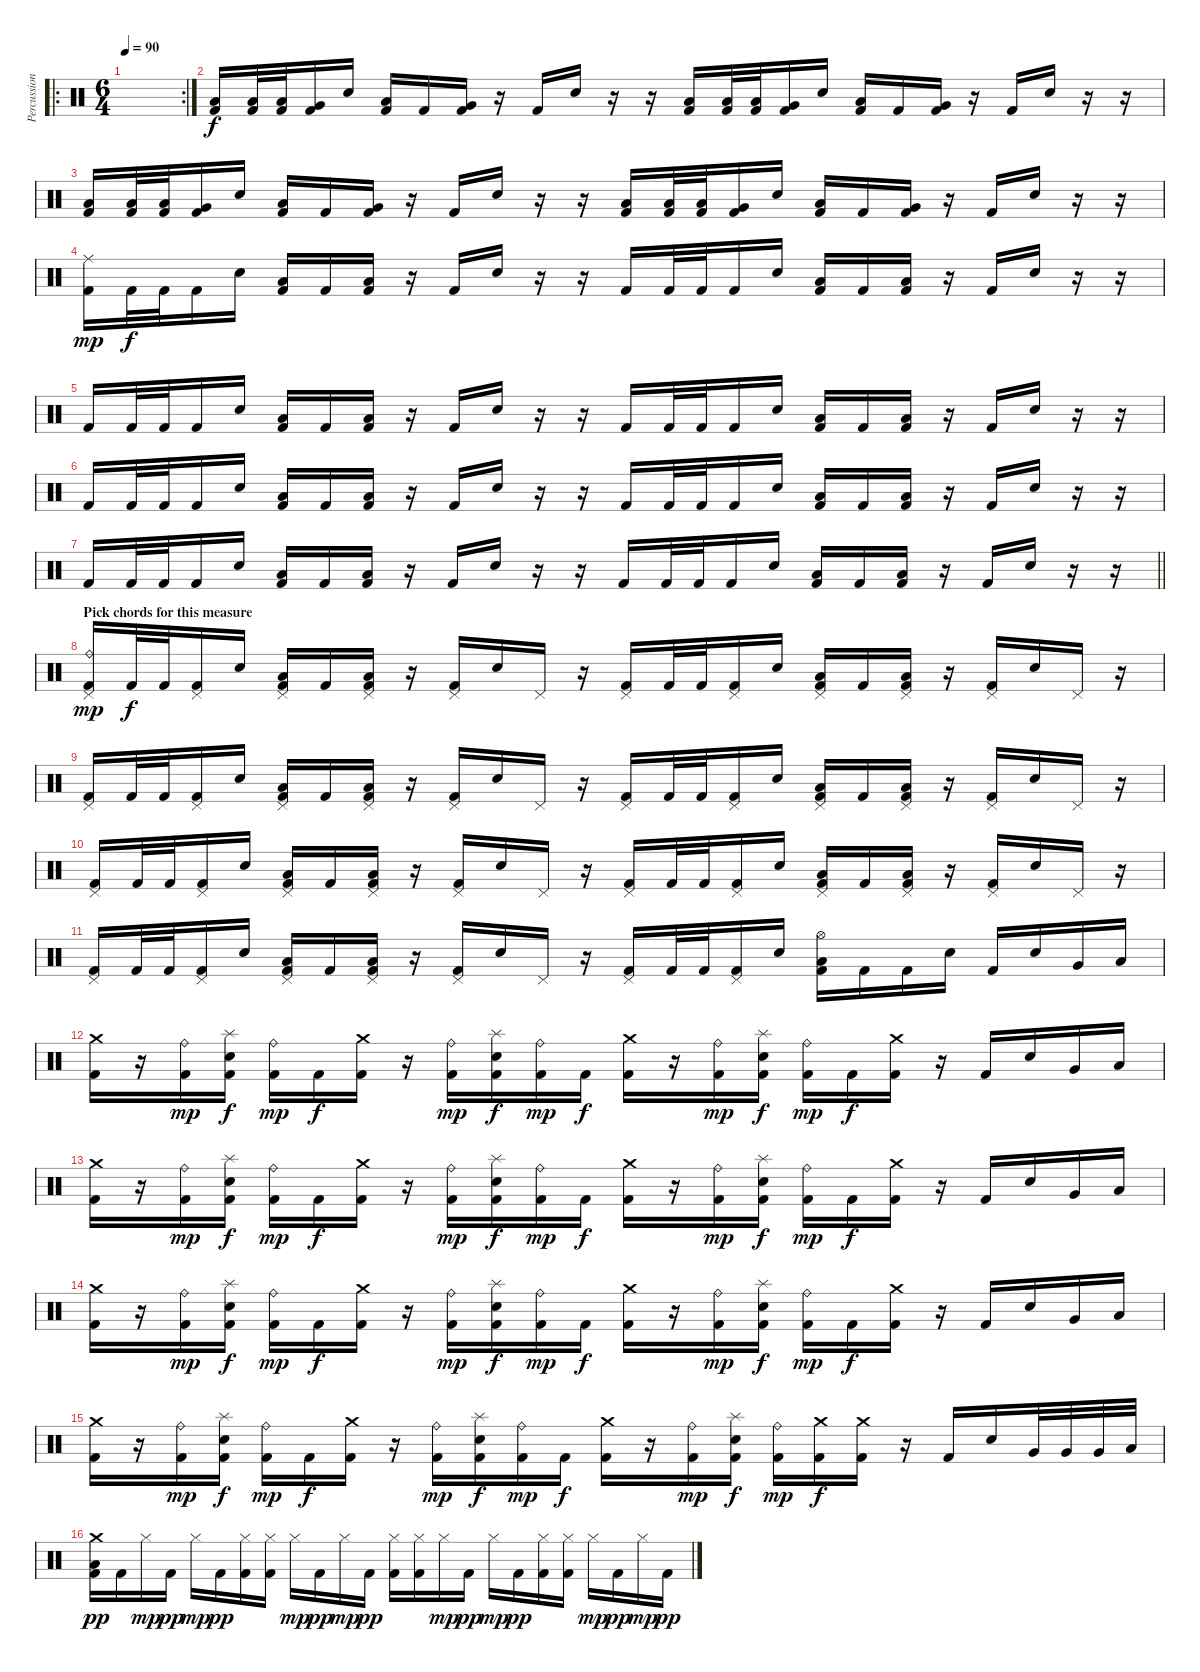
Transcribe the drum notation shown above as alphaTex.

\track ("Percussion" "Percussion") {instrument percussion}
\staff {score}
\articulation defaults
\ro
\rc 2
\ts (6 4)
\tempo 90
\clef neutral
\ks c
|
("Low Floor Tom (hit)" "Kick (hit) 2").16 ("Low Floor Tom (hit)" "Kick (hit) 2").32 ("Low Floor Tom (hit)" "Kick (hit) 2").32 ("Very Low Tom (hit)" "Kick (hit) 2").16 "Electric Snare (hit)".16 ("Low Tom (hit)" "Kick (hit) 2").16 "Kick (hit) 2".16 ("Very Low Tom (hit)" "Kick (hit) 2").16 r.16 "Kick (hit) 2".16 "Electric Snare (hit)".16 r.16 r.16 ("Low Floor Tom (hit)" "Kick (hit) 2").16 ("Low Floor Tom (hit)" "Kick (hit) 2").32 ("Low Floor Tom (hit)" "Kick (hit) 2").32 ("Very Low Tom (hit)" "Kick (hit) 2").16 "Electric Snare (hit)".16 ("Low Tom (hit)" "Kick (hit) 2").16 "Kick (hit) 2".16 ("Very Low Tom (hit)" "Kick (hit) 2").16 r.16 "Kick (hit) 2".16 "Electric Snare (hit)".16 r.16 r.16 |
("Low Floor Tom (hit)" "Kick (hit) 2").16 ("Low Floor Tom (hit)" "Kick (hit) 2").32 ("Low Floor Tom (hit)" "Kick (hit) 2").32 ("Very Low Tom (hit)" "Kick (hit) 2").16 "Electric Snare (hit)".16 ("Low Tom (hit)" "Kick (hit) 2").16 "Kick (hit) 2".16 ("Very Low Tom (hit)" "Kick (hit) 2").16 r.16 "Kick (hit) 2".16 "Electric Snare (hit)".16 r.16 r.16 ("Low Floor Tom (hit)" "Kick (hit) 2").16 ("Low Floor Tom (hit)" "Kick (hit) 2").32 ("Low Floor Tom (hit)" "Kick (hit) 2").32 ("Very Low Tom (hit)" "Kick (hit) 2").16 "Electric Snare (hit)".16 ("Low Tom (hit)" "Kick (hit) 2").16 "Kick (hit) 2".16 ("Very Low Tom (hit)" "Kick (hit) 2").16 r.16 "Kick (hit) 2".16 "Electric Snare (hit)".16 r.16 r.16 |
("Ride (middle)" "Kick (hit) 2").16{dy mp} "Kick (hit) 2".32{dy f} "Kick (hit) 2".32 "Kick (hit) 2".16 "Electric Snare (hit)".16 ("Low Floor Tom (hit)" "Kick (hit) 2").16 "Kick (hit) 2".16 ("Low Tom (hit)" "Kick (hit) 2").16 r.16 "Kick (hit) 2".16 "Electric Snare (hit)".16 r.16 r.16 "Kick (hit) 2".16 "Kick (hit) 2".32 "Kick (hit) 2".32 "Kick (hit) 2".16 "Electric Snare (hit)".16 ("Low Floor Tom (hit)" "Kick (hit) 2").16 "Kick (hit) 2".16 ("Low Tom (hit)" "Kick (hit) 2").16 r.16 "Kick (hit) 2".16 "Electric Snare (hit)".16 r.16 r.16 |
"Kick (hit) 2".16 "Kick (hit) 2".32 "Kick (hit) 2".32 "Kick (hit) 2".16 "Electric Snare (hit)".16 ("Low Floor Tom (hit)" "Kick (hit) 2").16 "Kick (hit) 2".16 ("Low Tom (hit)" "Kick (hit) 2").16 r.16 "Kick (hit) 2".16 "Electric Snare (hit)".16 r.16 r.16 "Kick (hit) 2".16 "Kick (hit) 2".32 "Kick (hit) 2".32 "Kick (hit) 2".16 "Electric Snare (hit)".16 ("Low Floor Tom (hit)" "Kick (hit) 2").16 "Kick (hit) 2".16 ("Low Tom (hit)" "Kick (hit) 2").16 r.16 "Kick (hit) 2".16 "Electric Snare (hit)".16 r.16 r.16 |
"Kick (hit) 2".16 "Kick (hit) 2".32 "Kick (hit) 2".32 "Kick (hit) 2".16 "Electric Snare (hit)".16 ("Low Floor Tom (hit)" "Kick (hit) 2").16 "Kick (hit) 2".16 ("Low Tom (hit)" "Kick (hit) 2").16 r.16 "Kick (hit) 2".16 "Electric Snare (hit)".16 r.16 r.16 "Kick (hit) 2".16 "Kick (hit) 2".32 "Kick (hit) 2".32 "Kick (hit) 2".16 "Electric Snare (hit)".16 ("Low Floor Tom (hit)" "Kick (hit) 2").16 "Kick (hit) 2".16 ("Low Tom (hit)" "Kick (hit) 2").16 r.16 "Kick (hit) 2".16 "Electric Snare (hit)".16 r.16 r.16 |
\barLineRight lightlight "Kick (hit) 2".16 "Kick (hit) 2".32 "Kick (hit) 2".32 "Kick (hit) 2".16 "Electric Snare (hit)".16
("Low Floor Tom (hit)" "Kick (hit) 2").16 "Kick (hit) 2".16 ("Low Tom (hit)" "Kick (hit) 2").16 r.16 "Kick (hit) 2".16 "Electric Snare (hit)".16 r.16 r.16 "Kick (hit) 2".16 "Kick (hit) 2".32 "Kick (hit) 2".32 "Kick (hit) 2".16 "Electric Snare (hit)".16 ("Low Floor Tom (hit)" "Kick (hit) 2").16 "Kick (hit) 2".16 ("Low Tom (hit)" "Kick (hit) 2").16 r.16 "Kick (hit) 2".16 "Electric Snare (hit)".16 r.16 r.16 |
\section ("" "Pick chords for this measure")
("Pedal Hi-Hat (hit)" "Ride (bell)" "Kick (hit) 2").16{dy mp} "Kick (hit) 2".32{dy f} "Kick (hit) 2".32 ("Pedal Hi-Hat (hit)" "Kick (hit) 2").16 "Electric Snare (hit)".16 ("Pedal Hi-Hat (hit)" "Low Floor Tom (hit)" "Kick (hit) 2").16 "Kick (hit) 2".16 ("Pedal Hi-Hat (hit)" "Low Tom (hit)" "Kick (hit) 2").16 r.16 ("Pedal Hi-Hat (hit)" "Kick (hit) 2").16 "Electric Snare (hit)".16 "Pedal Hi-Hat (hit)".16 r.16 ("Pedal Hi-Hat (hit)" "Kick (hit) 2").16 "Kick (hit) 2".32 "Kick (hit) 2".32 ("Pedal Hi-Hat (hit)" "Kick (hit) 2").16 "Electric Snare (hit)".16 ("Pedal Hi-Hat (hit)" "Low Floor Tom (hit)" "Kick (hit) 2").16 "Kick (hit) 2".16 ("Pedal Hi-Hat (hit)" "Low Tom (hit)" "Kick (hit) 2").16 r.16 ("Pedal Hi-Hat (hit)" "Kick (hit) 2").16 "Electric Snare (hit)".16 "Pedal Hi-Hat (hit)".16 r.16 |
("Pedal Hi-Hat (hit)" "Kick (hit) 2").16 "Kick (hit) 2".32 "Kick (hit) 2".32 ("Pedal Hi-Hat (hit)" "Kick (hit) 2").16 "Electric Snare (hit)".16 ("Pedal Hi-Hat (hit)" "Low Floor Tom (hit)" "Kick (hit) 2").16 "Kick (hit) 2".16 ("Pedal Hi-Hat (hit)" "Low Tom (hit)" "Kick (hit) 2").16 r.16 ("Pedal Hi-Hat (hit)" "Kick (hit) 2").16 "Electric Snare (hit)".16 "Pedal Hi-Hat (hit)".16 r.16 ("Pedal Hi-Hat (hit)" "Kick (hit) 2").16 "Kick (hit) 2".32 "Kick (hit) 2".32 ("Pedal Hi-Hat (hit)" "Kick (hit) 2").16 "Electric Snare (hit)".16 ("Pedal Hi-Hat (hit)" "Low Floor Tom (hit)" "Kick (hit) 2").16 "Kick (hit) 2".16 ("Pedal Hi-Hat (hit)" "Low Tom (hit)" "Kick (hit) 2").16 r.16 ("Pedal Hi-Hat (hit)" "Kick (hit) 2").16 "Electric Snare (hit)".16 "Pedal Hi-Hat (hit)".16 r.16 |
("Pedal Hi-Hat (hit)" "Kick (hit) 2").16 "Kick (hit) 2".32 "Kick (hit) 2".32 ("Pedal Hi-Hat (hit)" "Kick (hit) 2").16 "Electric Snare (hit)".16 ("Pedal Hi-Hat (hit)" "Low Floor Tom (hit)" "Kick (hit) 2").16 "Kick (hit) 2".16 ("Pedal Hi-Hat (hit)" "Low Tom (hit)" "Kick (hit) 2").16 r.16 ("Pedal Hi-Hat (hit)" "Kick (hit) 2").16 "Electric Snare (hit)".16 "Pedal Hi-Hat (hit)".16 r.16 ("Pedal Hi-Hat (hit)" "Kick (hit) 2").16 "Kick (hit) 2".32 "Kick (hit) 2".32 ("Pedal Hi-Hat (hit)" "Kick (hit) 2").16 "Electric Snare (hit)".16 ("Pedal Hi-Hat (hit)" "Low Floor Tom (hit)" "Kick (hit) 2").16 "Kick (hit) 2".16 ("Pedal Hi-Hat (hit)" "Low Tom (hit)" "Kick (hit) 2").16 r.16 ("Pedal Hi-Hat (hit)" "Kick (hit) 2").16 "Electric Snare (hit)".16 "Pedal Hi-Hat (hit)".16 r.16 |
("Pedal Hi-Hat (hit)" "Kick (hit) 2").16 "Kick (hit) 2".32 "Kick (hit) 2".32 ("Pedal Hi-Hat (hit)" "Kick (hit) 2").16 "Electric Snare (hit)".16 ("Pedal Hi-Hat (hit)" "Low Floor Tom (hit)" "Kick (hit) 2").16 "Kick (hit) 2".16 ("Pedal Hi-Hat (hit)" "Low Tom (hit)" "Kick (hit) 2").16 r.16 ("Pedal Hi-Hat (hit)" "Kick (hit) 2").16 "Electric Snare (hit)".16 "Pedal Hi-Hat (hit)".16 r.16 ("Pedal Hi-Hat (hit)" "Kick (hit) 2").16 "Kick (hit) 2".32 "Kick (hit) 2".32 ("Pedal Hi-Hat (hit)" "Kick (hit) 2").16 "Electric Snare (hit)".16 ("Hi-Hat (open)" "Low Floor Tom (hit)" "Kick (hit) 2").16 "Kick (hit) 2".16 "Kick (hit) 2".16 "Electric Snare (hit)".16 "Kick (hit) 2".16 "Electric Snare (hit)".16 "Very Low Tom (hit)".16 "Low Floor Tom (hit)".16 |
("Crash medium (hit)" "Kick (hit) 2").16 r.16 ("Ride (bell)" "Kick (hit) 2").16{dy mp} ("Splash (hit)" "Electric Snare (hit)" "Kick (hit) 2").16{dy f} ("Ride (bell)" "Kick (hit) 2").16{dy mp} "Kick (hit) 2".16{dy f} ("Crash medium (hit)" "Kick (hit) 2").16 r.16 ("Ride (bell)" "Kick (hit) 2").16{dy mp} ("Splash (hit)" "Electric Snare (hit)" "Kick (hit) 2").16{dy f} ("Ride (bell)" "Kick (hit) 2").16{dy mp} "Kick (hit) 2".16{dy f} ("Crash medium (hit)" "Kick (hit) 2").16 r.16 ("Ride (bell)" "Kick (hit) 2").16{dy mp} ("Splash (hit)" "Electric Snare (hit)" "Kick (hit) 2").16{dy f} ("Ride (bell)" "Kick (hit) 2").16{dy mp} "Kick (hit) 2".16{dy f} ("Crash medium (hit)" "Kick (hit) 2").16 r.16 "Kick (hit) 2".16 "Electric Snare (hit)".16 "Very Low Tom (hit)".16 "Low Floor Tom (hit)".16 |
("Crash medium (hit)" "Kick (hit) 2").16 r.16 ("Ride (bell)" "Kick (hit) 2").16{dy mp} ("Splash (hit)" "Electric Snare (hit)" "Kick (hit) 2").16{dy f} ("Ride (bell)" "Kick (hit) 2").16{dy mp} "Kick (hit) 2".16{dy f} ("Crash medium (hit)" "Kick (hit) 2").16 r.16 ("Ride (bell)" "Kick (hit) 2").16{dy mp} ("Splash (hit)" "Electric Snare (hit)" "Kick (hit) 2").16{dy f} ("Ride (bell)" "Kick (hit) 2").16{dy mp} "Kick (hit) 2".16{dy f} ("Crash medium (hit)" "Kick (hit) 2").16 r.16 ("Ride (bell)" "Kick (hit) 2").16{dy mp} ("Splash (hit)" "Electric Snare (hit)" "Kick (hit) 2").16{dy f} ("Ride (bell)" "Kick (hit) 2").16{dy mp} "Kick (hit) 2".16{dy f} ("Crash medium (hit)" "Kick (hit) 2").16 r.16 "Kick (hit) 2".16 "Electric Snare (hit)".16 "Very Low Tom (hit)".16 "Low Floor Tom (hit)".16 |
("Crash medium (hit)" "Kick (hit) 2").16 r.16 ("Ride (bell)" "Kick (hit) 2").16{dy mp} ("Splash (hit)" "Electric Snare (hit)" "Kick (hit) 2").16{dy f} ("Ride (bell)" "Kick (hit) 2").16{dy mp} "Kick (hit) 2".16{dy f} ("Crash medium (hit)" "Kick (hit) 2").16 r.16 ("Ride (bell)" "Kick (hit) 2").16{dy mp} ("Splash (hit)" "Electric Snare (hit)" "Kick (hit) 2").16{dy f} ("Ride (bell)" "Kick (hit) 2").16{dy mp} "Kick (hit) 2".16{dy f} ("Crash medium (hit)" "Kick (hit) 2").16 r.16 ("Ride (bell)" "Kick (hit) 2").16{dy mp} ("Splash (hit)" "Electric Snare (hit)" "Kick (hit) 2").16{dy f} ("Ride (bell)" "Kick (hit) 2").16{dy mp} "Kick (hit) 2".16{dy f} ("Crash medium (hit)" "Kick (hit) 2").16 r.16 "Kick (hit) 2".16 "Electric Snare (hit)".16 "Very Low Tom (hit)".16 "Low Floor Tom (hit)".16 |
("Crash medium (hit)" "Kick (hit) 2").16 r.16 ("Ride (bell)" "Kick (hit) 2").16{dy mp} ("Splash (hit)" "Electric Snare (hit)" "Kick (hit) 2").16{dy f} ("Ride (bell)" "Kick (hit) 2").16{dy mp} "Kick (hit) 2".16{dy f} ("Crash medium (hit)" "Kick (hit) 2").16 r.16 ("Ride (bell)" "Kick (hit) 2").16{dy mp} ("Splash (hit)" "Electric Snare (hit)" "Kick (hit) 2").16{dy f} ("Ride (bell)" "Kick (hit) 2").16{dy mp} "Kick (hit) 2".16{dy f} ("Crash medium (hit)" "Kick (hit) 2").16 r.16 ("Ride (bell)" "Kick (hit) 2").16{dy mp} ("Splash (hit)" "Electric Snare (hit)" "Kick (hit) 2").16{dy f} ("Ride (bell)" "Kick (hit) 2").16{dy mp} ("Crash medium (hit)" "Kick (hit) 2").16{dy f} ("Crash medium (hit)" "Kick (hit) 2").16 r.16 "Kick (hit) 2".16 "Electric Snare (hit)".16 "Very Low Tom (hit)".32 "Very Low Tom (hit)".32 "Very Low Tom (hit)".32 "Low Floor Tom (hit)".32 |
("Crash medium (hit)" "Low Floor Tom (hit)" "Kick (hit) 2").16{dy pp} "Kick (hit) 2".16 "Hi-Hat (closed)".16{dy mp} "Kick (hit) 2".16{dy pp} "Hi-Hat (closed)".16{dy mp} "Kick (hit) 2".16{dy pp} ("Hi-Hat (closed)" "Kick (hit) 2").16 ("Hi-Hat (closed)" "Kick (hit) 2").16 "Hi-Hat (closed)".16{dy mp} "Kick (hit) 2".16{dy pp} "Hi-Hat (closed)".16{dy mp} "Kick (hit) 2".16{dy pp} ("Hi-Hat (closed)" "Kick (hit) 2").16 ("Hi-Hat (closed)" "Kick (hit) 2").16 "Hi-Hat (closed)".16{dy mp} "Kick (hit) 2".16{dy pp} "Hi-Hat (closed)".16{dy mp} "Kick (hit) 2".16{dy pp} ("Hi-Hat (closed)" "Kick (hit) 2").16 ("Hi-Hat (closed)" "Kick (hit) 2").16 "Hi-Hat (closed)".16{dy mp} "Kick (hit) 2".16{dy pp} "Hi-Hat (closed)".16{dy mp} "Kick (hit) 2".16{dy pp}
